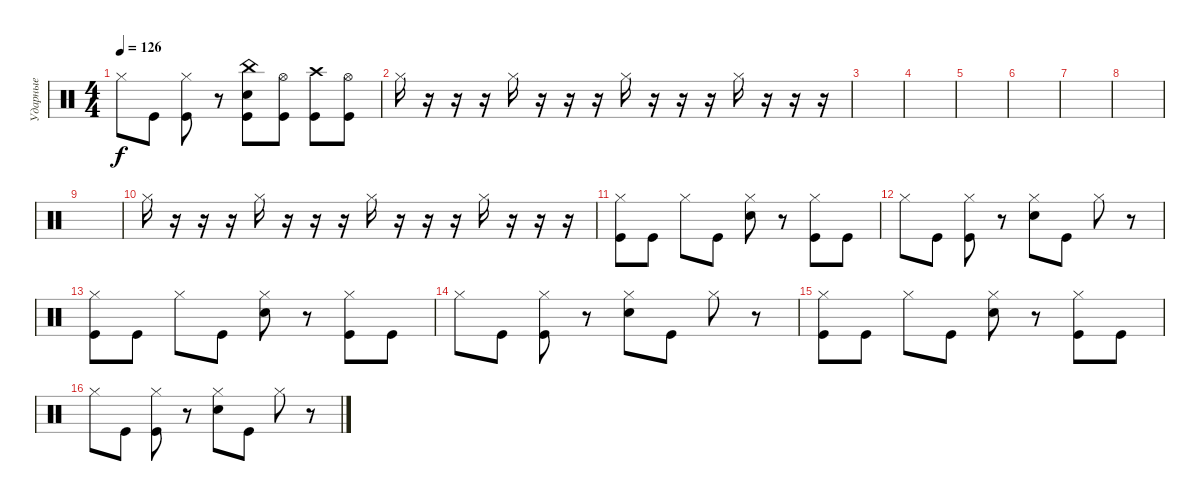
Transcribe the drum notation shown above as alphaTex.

\track ("Ударные" "Ударные") {instrument percussion}
\staff {score}
\articulation defaults
\ts (4 4)
\tempo 126
\clef neutral
\ks c "Hi-Hat (closed)".8{dy f} "Kick (hit)".8
("Hi-Hat (closed)" "Kick (hit)").8 r.8 ("China (hit)" "Electric Snare (hit)" "Kick (hit)").8 ("Hi-Hat (open)" "Kick (hit)").8 ("Crash high (hit)" "Kick (hit)").8 ("Hi-Hat (open)" "Kick (hit)").8 |
"Hi-Hat (closed)".16 r.16 r.16 r.16 "Hi-Hat (closed)".16 r.16 r.16 r.16 "Hi-Hat (closed)".16 r.16 r.16 r.16 "Hi-Hat (closed)".16 r.16 r.16 r.16 |
|
|
|
|
|
|
|
"Hi-Hat (closed)".16 r.16 r.16 r.16 "Hi-Hat (closed)".16 r.16 r.16 r.16 "Hi-Hat (closed)".16 r.16 r.16 r.16 "Hi-Hat (closed)".16 r.16 r.16 r.16 |
("Hi-Hat (closed)" "Kick (hit)").8 "Kick (hit)".8 "Hi-Hat (closed)".8 "Kick (hit)".8 ("Hi-Hat (closed)" "Electric Snare (hit)").8 r.8 ("Hi-Hat (closed)" "Kick (hit)").8 "Kick (hit)".8 |
"Hi-Hat (closed)".8 "Kick (hit)".8 ("Hi-Hat (closed)" "Kick (hit)").8 r.8 ("Hi-Hat (closed)" "Electric Snare (hit)").8 "Kick (hit)".8 "Hi-Hat (closed)".8 r.8 |
("Hi-Hat (closed)" "Kick (hit)").8 "Kick (hit)".8 "Hi-Hat (closed)".8 "Kick (hit)".8 ("Hi-Hat (closed)" "Electric Snare (hit)").8 r.8 ("Hi-Hat (closed)" "Kick (hit)").8 "Kick (hit)".8 |
"Hi-Hat (closed)".8 "Kick (hit)".8 ("Hi-Hat (closed)" "Kick (hit)").8 r.8 ("Hi-Hat (closed)" "Electric Snare (hit)").8 "Kick (hit)".8 "Hi-Hat (closed)".8 r.8 |
("Hi-Hat (closed)" "Kick (hit)").8 "Kick (hit)".8 "Hi-Hat (closed)".8 "Kick (hit)".8 ("Hi-Hat (closed)" "Electric Snare (hit)").8 r.8 ("Hi-Hat (closed)" "Kick (hit)").8 "Kick (hit)".8 |
"Hi-Hat (closed)".8 "Kick (hit)".8 ("Hi-Hat (closed)" "Kick (hit)").8 r.8 ("Hi-Hat (closed)" "Electric Snare (hit)").8 "Kick (hit)".8 "Hi-Hat (closed)".8 r.8
